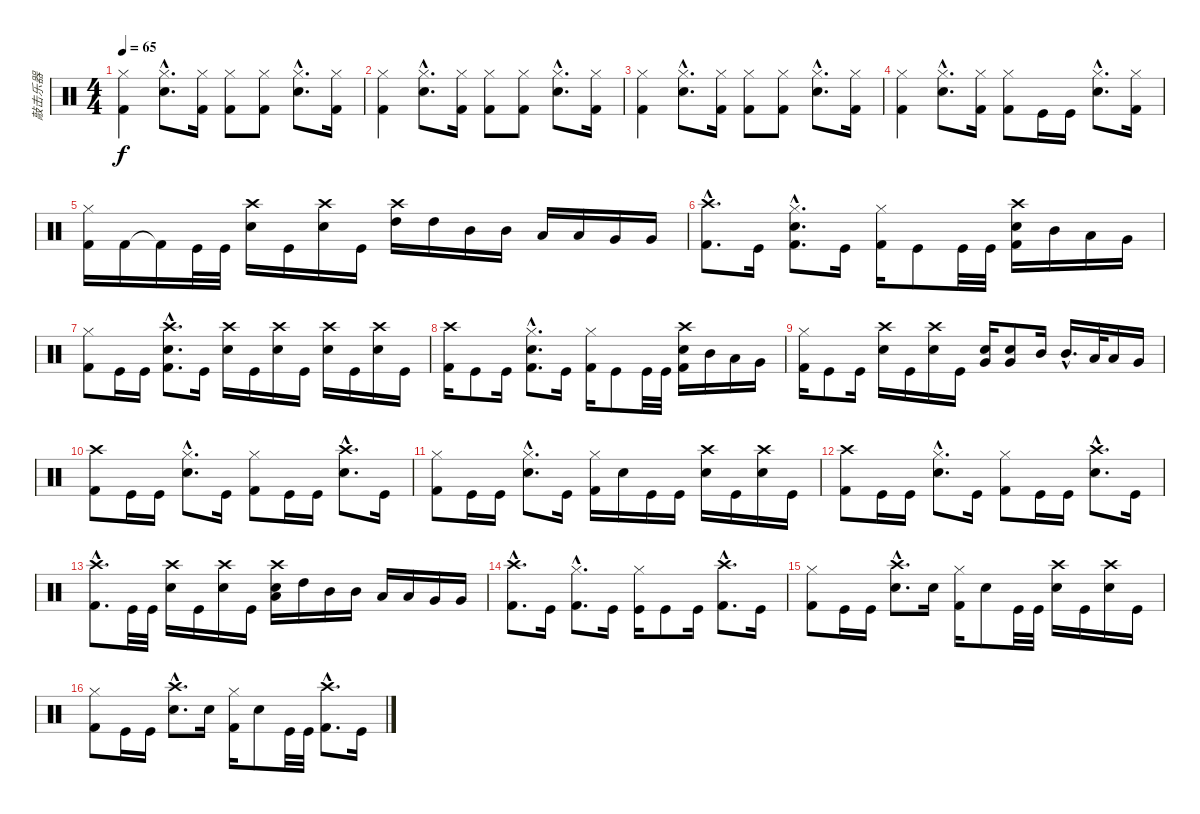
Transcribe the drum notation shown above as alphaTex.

\track ("敲击乐器" "敲击乐器") {instrument percussion}
\staff {score}
\articulation defaults
\ts (4 4)
\tempo 65
\clef neutral
\ks c
("Hi-Hat (closed)" "Kick (hit) 2").4{dy f} ("Hi-Hat (closed)"{hac} "Snare (hit) 2"{hac}).8{d} ("Hi-Hat (closed)" "Kick (hit) 2").16 ("Hi-Hat (closed)" "Kick (hit) 2").8 ("Hi-Hat (closed)" "Kick (hit) 2").8 ("Hi-Hat (closed)"{hac} "Snare (hit) 2"{hac}).8{d} ("Hi-Hat (closed)" "Kick (hit) 2").16 |
("Hi-Hat (closed)" "Kick (hit) 2").4 ("Hi-Hat (closed)"{hac} "Snare (hit) 2"{hac}).8{d} ("Hi-Hat (closed)" "Kick (hit) 2").16 ("Hi-Hat (closed)" "Kick (hit) 2").8 ("Hi-Hat (closed)" "Kick (hit) 2").8 ("Hi-Hat (closed)"{hac} "Snare (hit) 2"{hac}).8{d} ("Hi-Hat (closed)" "Kick (hit) 2").16 |
("Hi-Hat (closed)" "Kick (hit) 2").4 ("Hi-Hat (closed)"{hac} "Snare (hit) 2"{hac}).8{d} ("Hi-Hat (closed)" "Kick (hit) 2").16 ("Hi-Hat (closed)" "Kick (hit) 2").8 ("Hi-Hat (closed)" "Kick (hit) 2").8 ("Hi-Hat (closed)"{hac} "Snare (hit) 2"{hac}).8{d} ("Hi-Hat (closed)" "Kick (hit) 2").16 |
("Hi-Hat (closed)" "Kick (hit) 2").4 ("Hi-Hat (closed)"{hac} "Snare (hit) 2"{hac}).8{d} ("Hi-Hat (closed)" "Kick (hit) 2").16 ("Hi-Hat (closed)" "Kick (hit) 2").8 "Kick (hit)".16 "Kick (hit)".16 ("Hi-Hat (closed)"{hac} "Snare (hit) 2"{hac}).8{d} ("Hi-Hat (closed)" "Kick (hit) 2").16 |
("Hi-Hat (closed)" "Kick (hit) 2").16 "Kick (hit) 2".16 "Kick (hit) 2"{t}.16 "Kick (hit)".32 "Kick (hit)".32 ("Crash high (hit)" "Snare (hit) 2").16 "Kick (hit)".16 ("Crash high (hit)" "Snare (hit) 2").16 "Kick (hit)".16 ("Crash high (hit)" "High Tom (hit)").16 "High Tom (hit)".16 "Mid Tom (hit)".16 "Mid Tom (hit)".16 "Low Tom (hit)".16 "Low Tom (hit)".16 "Very Low Tom (hit)".16 "Very Low Tom (hit)".16 |
("Crash high (hit)"{hac} "Kick (hit) 2"{hac}).8{d} "Kick (hit)".16 ("Hi-Hat (closed)"{hac} "Snare (hit) 2"{hac} "Kick (hit) 2"{hac}).8{d} "Kick (hit)".16 ("Hi-Hat (closed)" "Kick (hit) 2").16 "Kick (hit)".8 "Kick (hit)".32 "Kick (hit)".32 ("Crash high (hit)" "Snare (hit) 2" "Kick (hit) 2").16 "Mid Tom (hit)".16 "Low Tom (hit)".16 "Very Low Tom (hit)".16 |
("Hi-Hat (closed)" "Kick (hit) 2").8 "Kick (hit)".16 "Kick (hit)".16 ("Crash high (hit)"{hac} "Snare (hit) 2"{hac} "Kick (hit) 2"{hac}).8{d} "Kick (hit)".16 ("Crash high (hit)" "Snare (hit) 2").16 "Kick (hit)".16 ("Crash high (hit)" "Snare (hit) 2").16 "Kick (hit)".16 ("Crash high (hit)" "Snare (hit) 2").16 "Kick (hit)".16 ("Crash high (hit)" "Snare (hit) 2").16 "Kick (hit)".16 |
("Crash high (hit)" "Kick (hit) 2").16 "Kick (hit)".8 "Kick (hit)".16 ("Hi-Hat (closed)"{hac} "Snare (hit) 2"{hac} "Kick (hit) 2"{hac}).8{d} "Kick (hit)".16 ("Hi-Hat (closed)" "Kick (hit) 2").16 "Kick (hit)".8 "Kick (hit)".32 "Kick (hit)".32 ("Crash high (hit)" "Snare (hit) 2" "Kick (hit) 2").16 "Mid Tom (hit)".16 "Low Tom (hit)".16 "Very Low Tom (hit)".16 |
("Hi-Hat (closed)" "Kick (hit) 2").16 "Kick (hit)".8 "Kick (hit)".16 ("Crash high (hit)" "Snare (hit) 2").16 "Kick (hit)".16 ("Crash high (hit)" "Snare (hit) 2").16 "Kick (hit)".16 ("Snare (hit) 2" "Very Low Tom (hit)").16 ("Snare (hit) 2" "Very Low Tom (hit)").8 "Mid Tom (hit)".16 "Mid Tom (hit)"{hac}.16{d} "Low Tom (hit)".32 "Low Tom (hit)".16 "Very Low Tom (hit)".16 |
("Crash high (hit)" "Kick (hit) 2").8 "Kick (hit)".16 "Kick (hit)".16 ("Hi-Hat (closed)"{hac} "Snare (hit) 2"{hac}).8{d} "Kick (hit)".16 ("Hi-Hat (closed)" "Kick (hit) 2").8 "Kick (hit)".16 "Kick (hit)".16 ("Crash high (hit)"{hac} "Snare (hit) 2"{hac}).8{d} "Kick (hit)".16 |
("Hi-Hat (closed)" "Kick (hit) 2").8 "Kick (hit)".16 "Kick (hit)".16 ("Hi-Hat (closed)"{hac} "Snare (hit) 2"{hac}).8{d} "Kick (hit)".16 ("Hi-Hat (closed)" "Kick (hit) 2").16 "Snare (hit) 2".16 "Kick (hit)".16 "Kick (hit)".16 ("Crash high (hit)" "Snare (hit) 2").16 "Kick (hit)".16 ("Crash high (hit)" "Snare (hit) 2").16 "Kick (hit)".16 |
("Crash high (hit)" "Kick (hit) 2").8 "Kick (hit)".16 "Kick (hit)".16 ("Hi-Hat (closed)"{hac} "Snare (hit) 2"{hac}).8{d} "Kick (hit)".16 ("Hi-Hat (closed)" "Kick (hit) 2").8 "Kick (hit)".16 "Kick (hit)".16 ("Crash high (hit)"{hac} "Snare (hit) 2"{hac}).8{d} "Kick (hit)".16 |
("Crash high (hit)"{hac} "Kick (hit) 2"{hac}).8{d} "Kick (hit)".32 "Kick (hit)".32 ("Crash high (hit)" "Snare (hit) 2").16 "Kick (hit)".16 ("Crash high (hit)" "Snare (hit) 2").16 "Kick (hit)".16 ("Crash high (hit)" "Snare (hit) 2" "Low Floor Tom (hit)").16 "High Tom (hit)".16 "Mid Tom (hit)".16 "Mid Tom (hit)".16 "Low Tom (hit)".16 "Low Tom (hit)".16 "Very Low Tom (hit)".16 "Very Low Tom (hit)".16 |
("Crash high (hit)"{hac} "Kick (hit) 2"{hac}).8{d} "Kick (hit)".16 ("Hi-Hat (closed)"{hac} "Kick (hit) 2"{hac}).8{d} "Kick (hit)".16 ("Hi-Hat (closed)" "Kick (hit)").16 "Kick (hit)".8 "Kick (hit)".16 ("Crash high (hit)"{hac} "Kick (hit) 2"{hac}).8{d} "Kick (hit)".16 |
("Hi-Hat (closed)" "Kick (hit) 2").8 "Kick (hit)".16 "Kick (hit)".16 ("Crash high (hit)"{hac} "Snare (hit) 2"{hac}).8{d} "Electric Snare (hit)".16 ("Hi-Hat (closed)" "Kick (hit) 2").16 "Electric Snare (hit)".8 "Kick (hit)".32 "Kick (hit)".32 ("Crash high (hit)" "Snare (hit) 2").16 "Kick (hit)".16 ("Crash high (hit)" "Snare (hit) 2").16 "Kick (hit)".16 |
("Hi-Hat (closed)" "Kick (hit) 2").8 "Kick (hit)".16 "Kick (hit)".16 ("Crash high (hit)"{hac} "Snare (hit) 2"{hac}).8{d} "Electric Snare (hit)".16 ("Hi-Hat (closed)" "Kick (hit) 2").16 "Electric Snare (hit)".8 "Kick (hit)".32 "Kick (hit)".32 ("Crash high (hit)"{hac} "Kick (hit) 2"{hac}).8{d} "Kick (hit)".16
